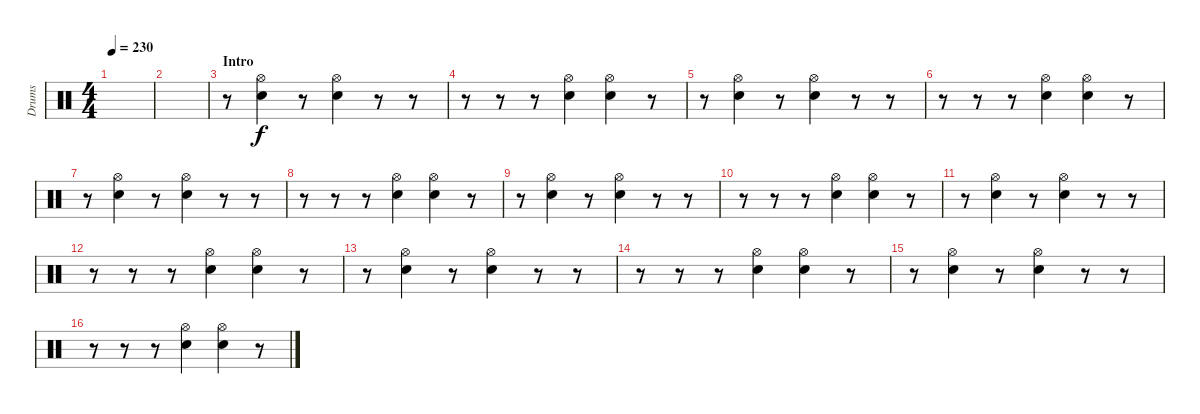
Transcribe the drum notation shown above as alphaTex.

\track ("Drums" "Drums") {instrument percussion}
\staff {score}
\articulation defaults
\ts (4 4)
\tempo 230
\clef neutral
\ks c
|
|
\section ("" "Intro")
r.8 ("Hi-Hat (open)" "Snare (hit) 2").4 r.8 ("Hi-Hat (open)" "Snare (hit) 2").4 r.8 r.8 |
r.8 r.8 r.8 ("Hi-Hat (open)" "Snare (hit) 2").4 ("Hi-Hat (open)" "Snare (hit) 2").4 r.8 |
r.8 ("Hi-Hat (open)" "Snare (hit) 2").4 r.8 ("Hi-Hat (open)" "Snare (hit) 2").4 r.8 r.8 |
r.8 r.8 r.8 ("Hi-Hat (open)" "Snare (hit) 2").4 ("Hi-Hat (open)" "Snare (hit) 2").4 r.8 |
r.8 ("Hi-Hat (open)" "Snare (hit) 2").4 r.8 ("Hi-Hat (open)" "Snare (hit) 2").4 r.8 r.8 |
r.8 r.8 r.8 ("Hi-Hat (open)" "Snare (hit) 2").4 ("Hi-Hat (open)" "Snare (hit) 2").4 r.8 |
r.8 ("Hi-Hat (open)" "Snare (hit) 2").4 r.8 ("Hi-Hat (open)" "Snare (hit) 2").4 r.8 r.8 |
r.8 r.8 r.8 ("Hi-Hat (open)" "Snare (hit) 2").4 ("Hi-Hat (open)" "Snare (hit) 2").4 r.8 |
r.8 ("Hi-Hat (open)" "Snare (hit) 2").4 r.8 ("Hi-Hat (open)" "Snare (hit) 2").4 r.8 r.8 |
r.8 r.8 r.8 ("Hi-Hat (open)" "Snare (hit) 2").4 ("Hi-Hat (open)" "Snare (hit) 2").4 r.8 |
r.8 ("Hi-Hat (open)" "Snare (hit) 2").4 r.8 ("Hi-Hat (open)" "Snare (hit) 2").4 r.8 r.8 |
r.8 r.8 r.8 ("Hi-Hat (open)" "Snare (hit) 2").4 ("Hi-Hat (open)" "Snare (hit) 2").4 r.8 |
r.8 ("Hi-Hat (open)" "Snare (hit) 2").4 r.8 ("Hi-Hat (open)" "Snare (hit) 2").4 r.8 r.8 |
r.8 r.8 r.8 ("Hi-Hat (open)" "Snare (hit) 2").4 ("Hi-Hat (open)" "Snare (hit) 2").4 r.8
